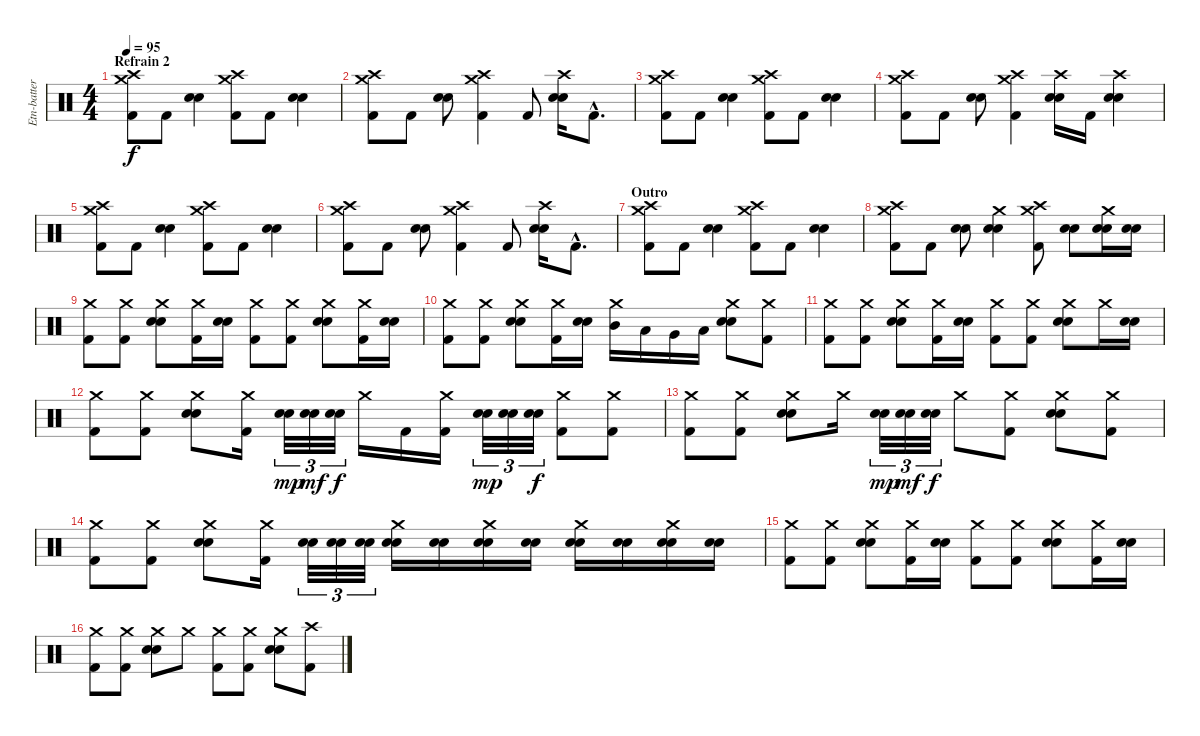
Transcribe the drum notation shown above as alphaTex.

\track ("Etn-batterie" "Etn-batter") {instrument percussion}
\staff {score}
\articulation defaults
\ts (4 4)
\section ("" "Refrain 2")
\tempo 95
\clef neutral
\ks c
("Kick (hit) 2" "Crash medium (hit)" "Crash high (hit)").8{dy f volume 16} "Kick (hit) 2".8 ("Electric Snare (hit)" "Electric Snare (hit)").4 ("Kick (hit) 2" "Crash medium (hit)" "Crash high (hit)").8 "Kick (hit) 2".8 ("Electric Snare (hit)" "Electric Snare (hit)").4 |
("Kick (hit) 2" "Crash medium (hit)" "Crash high (hit)").8 "Kick (hit) 2".8 ("Electric Snare (hit)" "Electric Snare (hit)").8 ("Kick (hit) 2" "Crash medium (hit)" "Crash high (hit)").4 "Kick (hit) 2".8 ("Electric Snare (hit)" "Electric Snare (hit)" "Crash high (hit)").16 "Kick (hit) 2"{hac}.8{d} |
("Kick (hit) 2" "Crash medium (hit)" "Crash high (hit)").8 "Kick (hit) 2".8 ("Electric Snare (hit)" "Electric Snare (hit)").4 ("Kick (hit) 2" "Crash medium (hit)" "Crash high (hit)").8 "Kick (hit) 2".8 ("Electric Snare (hit)" "Electric Snare (hit)").4 |
("Kick (hit) 2" "Crash medium (hit)" "Crash high (hit)").8 "Kick (hit) 2".8 ("Electric Snare (hit)" "Electric Snare (hit)").8 ("Kick (hit) 2" "Crash medium (hit)" "Crash high (hit)").4 ("Electric Snare (hit)" "Electric Snare (hit)" "Crash high (hit)").16 "Kick (hit) 2".16 ("Electric Snare (hit)" "Electric Snare (hit)" "Crash high (hit)").4 |
("Kick (hit) 2" "Crash medium (hit)" "Crash high (hit)").8 "Kick (hit) 2".8 ("Electric Snare (hit)" "Electric Snare (hit)").4 ("Kick (hit) 2" "Crash medium (hit)" "Crash high (hit)").8 "Kick (hit) 2".8 ("Electric Snare (hit)" "Electric Snare (hit)").4 |
("Kick (hit) 2" "Crash medium (hit)" "Crash high (hit)").8 "Kick (hit) 2".8 ("Electric Snare (hit)" "Electric Snare (hit)").8 ("Kick (hit) 2" "Crash medium (hit)" "Crash high (hit)").4 "Kick (hit) 2".8 ("Electric Snare (hit)" "Electric Snare (hit)" "Crash high (hit)").16 "Kick (hit) 2"{hac}.8{d} |
\section ("" "Outro")
("Kick (hit) 2" "Crash medium (hit)" "Crash high (hit)").8 "Kick (hit) 2".8 ("Electric Snare (hit)" "Electric Snare (hit)").4 ("Kick (hit) 2" "Crash medium (hit)" "Crash high (hit)").8 "Kick (hit) 2".8 ("Electric Snare (hit)" "Electric Snare (hit)").4 |
("Kick (hit) 2" "Crash medium (hit)" "Crash high (hit)").8 "Kick (hit) 2".8 ("Electric Snare (hit)" "Electric Snare (hit)").8 ("Electric Snare (hit)" "Electric Snare (hit)" "Crash medium (hit)").4 ("Kick (hit) 2" "Crash medium (hit)" "Crash high (hit)").8 ("Electric Snare (hit)" "Electric Snare (hit)").8 ("Electric Snare (hit)" "Electric Snare (hit)" "Crash medium (hit)").16 ("Electric Snare (hit)" "Electric Snare (hit)").16 |
("Kick (hit) 2" "Crash medium (hit)").8{volume 16} ("Kick (hit) 2" "Crash medium (hit)").8 ("Electric Snare (hit)" "Electric Snare (hit)" "Crash medium (hit)").8 ("Kick (hit) 2" "Crash medium (hit)").16 ("Electric Snare (hit)" "Electric Snare (hit)").16 ("Kick (hit) 2" "Crash medium (hit)").8 ("Kick (hit) 2" "Crash medium (hit)").8 ("Electric Snare (hit)" "Electric Snare (hit)" "Crash medium (hit)").8 ("Kick (hit) 2" "Crash medium (hit)").16 ("Electric Snare (hit)" "Electric Snare (hit)").16 |
("Kick (hit) 2" "Crash medium (hit)").8 ("Kick (hit) 2" "Crash medium (hit)").8 ("Electric Snare (hit)" "Electric Snare (hit)" "Crash medium (hit)").8 ("Kick (hit) 2" "Crash medium (hit)").16 ("Electric Snare (hit)" "Electric Snare (hit)").16 ("Mid Tom (hit)" "Crash medium (hit)").16 "Low Tom (hit)".16 "Very Low Tom (hit)".16 "Low Floor Tom (hit)".16 ("Electric Snare (hit)" "Electric Snare (hit)" "Crash medium (hit)").8 ("Kick (hit) 2" "Crash medium (hit)").8 |
("Kick (hit) 2" "Crash medium (hit)").8 ("Kick (hit) 2" "Crash medium (hit)").8 ("Electric Snare (hit)" "Electric Snare (hit)" "Crash medium (hit)").8 ("Kick (hit) 2" "Crash medium (hit)").16 ("Electric Snare (hit)" "Electric Snare (hit)").16 ("Kick (hit) 2" "Crash medium (hit)").8 ("Kick (hit) 2" "Crash medium (hit)").8 ("Electric Snare (hit)" "Electric Snare (hit)" "Crash medium (hit)").8 "Crash medium (hit)".16 ("Electric Snare (hit)" "Electric Snare (hit)").16 |
("Kick (hit) 2" "Crash medium (hit)").8 ("Kick (hit) 2" "Crash medium (hit)").8 ("Electric Snare (hit)" "Electric Snare (hit)" "Crash medium (hit)").8 ("Kick (hit) 2" "Crash medium (hit)").16 ("Electric Snare (hit)" "Electric Snare (hit)").32{tu (3 2) dy mp} ("Electric Snare (hit)" "Electric Snare (hit)").32{tu (3 2) dy mf} ("Electric Snare (hit)" "Electric Snare (hit)").32{tu (3 2) dy f} "Crash medium (hit)".16 "Kick (hit) 2".16 ("Kick (hit) 2" "Crash medium (hit)").16 ("Electric Snare (hit)" "Electric Snare (hit)").32{tu (3 2) dy mp} ("Electric Snare (hit)" "Electric Snare (hit)").32{tu (3 2)} ("Electric Snare (hit)" "Electric Snare (hit)").32{tu (3 2) dy f} ("Kick (hit) 2" "Crash medium (hit)").8 ("Kick (hit) 2" "Crash medium (hit)").8 |
("Kick (hit) 2" "Crash medium (hit)").8 ("Kick (hit) 2" "Crash medium (hit)").8 ("Electric Snare (hit)" "Electric Snare (hit)" "Crash medium (hit)").8 "Crash medium (hit)".16 ("Electric Snare (hit)" "Electric Snare (hit)").32{tu (3 2) dy mp} ("Electric Snare (hit)" "Electric Snare (hit)").32{tu (3 2) dy mf} ("Electric Snare (hit)" "Electric Snare (hit)").32{tu (3 2) dy f} "Crash medium (hit)".8 ("Kick (hit) 2" "Crash medium (hit)").8 ("Electric Snare (hit)" "Electric Snare (hit)" "Crash medium (hit)").8 ("Kick (hit) 2" "Crash medium (hit)").8 |
("Kick (hit) 2" "Crash medium (hit)").8 ("Kick (hit) 2" "Crash medium (hit)").8 ("Electric Snare (hit)" "Electric Snare (hit)" "Crash medium (hit)").8 ("Kick (hit) 2" "Crash medium (hit)").16 ("Electric Snare (hit)" "Electric Snare (hit)").32{tu (3 2)} ("Electric Snare (hit)" "Electric Snare (hit)").32{tu (3 2)} ("Electric Snare (hit)" "Electric Snare (hit)").32{tu (3 2)} ("Electric Snare (hit)" "Electric Snare (hit)" "Crash medium (hit)").16 ("Electric Snare (hit)" "Electric Snare (hit)").16 ("Electric Snare (hit)" "Electric Snare (hit)" "Crash medium (hit)").16 ("Electric Snare (hit)" "Electric Snare (hit)").16 ("Electric Snare (hit)" "Electric Snare (hit)" "Crash medium (hit)").16 ("Electric Snare (hit)" "Electric Snare (hit)").16 ("Electric Snare (hit)" "Electric Snare (hit)" "Crash medium (hit)").16 ("Electric Snare (hit)" "Electric Snare (hit)").16 |
("Kick (hit) 2" "Crash medium (hit)").8 ("Kick (hit) 2" "Crash medium (hit)").8 ("Electric Snare (hit)" "Electric Snare (hit)" "Crash medium (hit)").8 ("Kick (hit) 2" "Crash medium (hit)").16 ("Electric Snare (hit)" "Electric Snare (hit)").16 ("Kick (hit) 2" "Crash medium (hit)").8 ("Kick (hit) 2" "Crash medium (hit)").8 ("Electric Snare (hit)" "Electric Snare (hit)" "Crash medium (hit)").8 ("Kick (hit) 2" "Crash medium (hit)").16 ("Electric Snare (hit)" "Electric Snare (hit)").16 |
("Kick (hit) 2" "Crash medium (hit)").8 ("Kick (hit) 2" "Crash medium (hit)").8 ("Electric Snare (hit)" "Electric Snare (hit)" "Crash medium (hit)").8 "Crash medium (hit)".8 ("Kick (hit) 2" "Crash medium (hit)").8 ("Kick (hit) 2" "Crash medium (hit)").8 ("Electric Snare (hit)" "Electric Snare (hit)" "Crash medium (hit)").8 ("Kick (hit) 2" "Crash high (hit)").8
